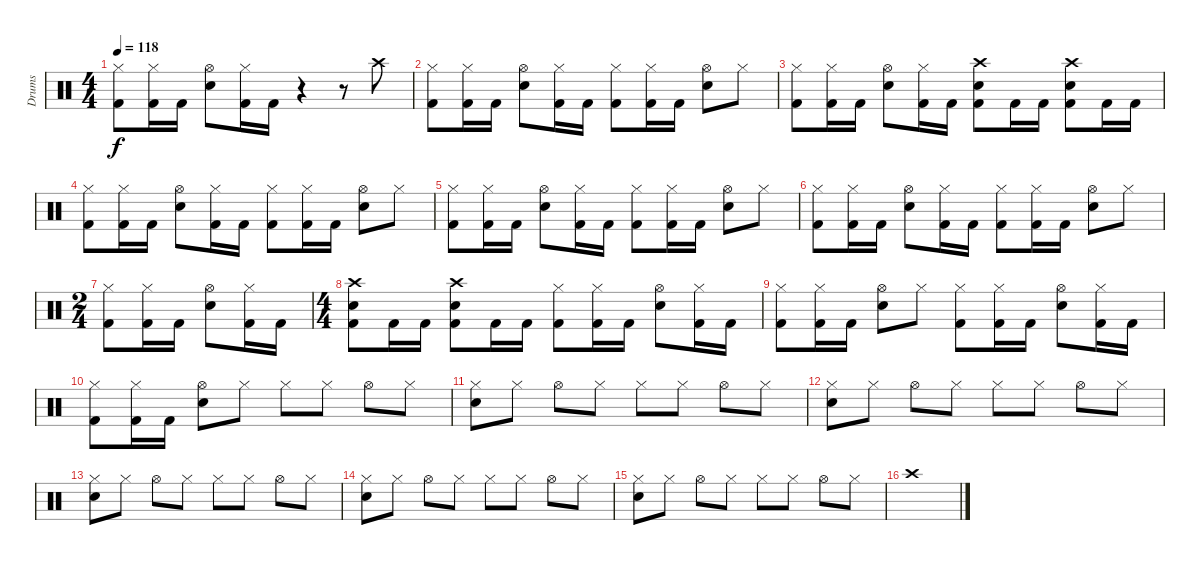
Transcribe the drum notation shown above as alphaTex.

\track ("Drums" "Drums") {solo instrument percussion}
\staff {score}
\articulation defaults
\ts (4 4)
\tempo 118
\clef neutral
\ks c
("Hi-Hat (closed)" "Kick (hit) 2").8{dy f} ("Hi-Hat (closed)" "Kick (hit) 2").16 "Kick (hit) 2".16 ("Hi-Hat (open)" "Snare (hit) 2").8 ("Hi-Hat (closed)" "Kick (hit) 2").16 "Kick (hit) 2".16 r.4 r.8 "Crash high (hit)".8 |
("Hi-Hat (closed)" "Kick (hit) 2").8 ("Hi-Hat (closed)" "Kick (hit) 2").16 "Kick (hit) 2".16 ("Hi-Hat (open)" "Snare (hit) 2").8 ("Hi-Hat (closed)" "Kick (hit) 2").16 "Kick (hit) 2".16 ("Hi-Hat (closed)" "Kick (hit) 2").8 ("Hi-Hat (closed)" "Kick (hit) 2").16 "Kick (hit) 2".16 ("Hi-Hat (open)" "Snare (hit) 2").8 "Hi-Hat (closed)".8 |
("Hi-Hat (closed)" "Kick (hit) 2").8 ("Hi-Hat (closed)" "Kick (hit) 2").16 "Kick (hit) 2".16 ("Hi-Hat (open)" "Snare (hit) 2").8 ("Hi-Hat (closed)" "Kick (hit) 2").16 "Kick (hit) 2".16 ("Crash high (hit)" "Kick (hit) 2" "Snare (hit) 2").8 "Kick (hit) 2".16 "Kick (hit) 2".16 ("Crash high (hit)" "Kick (hit) 2" "Snare (hit) 2").8 "Kick (hit) 2".16 "Kick (hit) 2".16 |
("Hi-Hat (closed)" "Kick (hit) 2").8 ("Hi-Hat (closed)" "Kick (hit) 2").16 "Kick (hit) 2".16 ("Hi-Hat (open)" "Snare (hit) 2").8 ("Hi-Hat (closed)" "Kick (hit) 2").16 "Kick (hit) 2".16 ("Hi-Hat (closed)" "Kick (hit) 2").8 ("Hi-Hat (closed)" "Kick (hit) 2").16 "Kick (hit) 2".16 ("Hi-Hat (open)" "Snare (hit) 2").8 "Hi-Hat (closed)".8 |
("Hi-Hat (closed)" "Kick (hit) 2").8 ("Hi-Hat (closed)" "Kick (hit) 2").16 "Kick (hit) 2".16 ("Hi-Hat (open)" "Snare (hit) 2").8 ("Hi-Hat (closed)" "Kick (hit) 2").16 "Kick (hit) 2".16 ("Hi-Hat (closed)" "Kick (hit) 2").8 ("Hi-Hat (closed)" "Kick (hit) 2").16 "Kick (hit) 2".16 ("Hi-Hat (open)" "Snare (hit) 2").8 "Hi-Hat (closed)".8 |
("Hi-Hat (closed)" "Kick (hit) 2").8 ("Hi-Hat (closed)" "Kick (hit) 2").16 "Kick (hit) 2".16 ("Hi-Hat (open)" "Snare (hit) 2").8 ("Hi-Hat (closed)" "Kick (hit) 2").16 "Kick (hit) 2".16 ("Hi-Hat (closed)" "Kick (hit) 2").8 ("Hi-Hat (closed)" "Kick (hit) 2").16 "Kick (hit) 2".16 ("Hi-Hat (open)" "Snare (hit) 2").8 "Hi-Hat (closed)".8 |
\ts (2 4)
("Hi-Hat (closed)" "Kick (hit) 2").8 ("Hi-Hat (closed)" "Kick (hit) 2").16 "Kick (hit) 2".16 ("Hi-Hat (open)" "Snare (hit) 2").8 ("Hi-Hat (closed)" "Kick (hit) 2").16 "Kick (hit) 2".16 |
\ts (4 4)
("Crash high (hit)" "Kick (hit) 2" "Snare (hit) 2").8 "Kick (hit) 2".16 "Kick (hit) 2".16 ("Crash high (hit)" "Kick (hit) 2" "Snare (hit) 2").8 "Kick (hit) 2".16 "Kick (hit) 2".16 ("Hi-Hat (closed)" "Kick (hit) 2").8 ("Hi-Hat (closed)" "Kick (hit) 2").16 "Kick (hit) 2".16 ("Hi-Hat (open)" "Snare (hit) 2").8 ("Hi-Hat (closed)" "Kick (hit) 2").16 "Kick (hit) 2".16 |
("Hi-Hat (closed)" "Kick (hit) 2").8 ("Hi-Hat (closed)" "Kick (hit) 2").16 "Kick (hit) 2".16 ("Hi-Hat (open)" "Snare (hit) 2").8 "Hi-Hat (closed)".8 ("Hi-Hat (closed)" "Kick (hit) 2").8 ("Hi-Hat (closed)" "Kick (hit) 2").16 "Kick (hit) 2".16 ("Hi-Hat (open)" "Snare (hit) 2").8 ("Hi-Hat (closed)" "Kick (hit) 2").16 "Kick (hit) 2".16 |
("Hi-Hat (closed)" "Kick (hit) 2").8 ("Hi-Hat (closed)" "Kick (hit) 2").16 "Kick (hit) 2".16 ("Hi-Hat (open)" "Snare (hit) 2").8 "Hi-Hat (closed)".8 "Hi-Hat (closed)".8 "Hi-Hat (closed)".8 "Hi-Hat (open)".8 "Hi-Hat (closed)".8 |
("Hi-Hat (closed)" "Snare (hit) 2").8 "Hi-Hat (closed)".8 "Hi-Hat (open)".8 "Hi-Hat (closed)".8 "Hi-Hat (closed)".8 "Hi-Hat (closed)".8 "Hi-Hat (open)".8 "Hi-Hat (closed)".8 |
("Hi-Hat (closed)" "Snare (hit) 2").8 "Hi-Hat (closed)".8 "Hi-Hat (open)".8 "Hi-Hat (closed)".8 "Hi-Hat (closed)".8 "Hi-Hat (closed)".8 "Hi-Hat (open)".8 "Hi-Hat (closed)".8 |
("Hi-Hat (closed)" "Snare (hit) 2").8 "Hi-Hat (closed)".8 "Hi-Hat (open)".8 "Hi-Hat (closed)".8 "Hi-Hat (closed)".8 "Hi-Hat (closed)".8 "Hi-Hat (open)".8 "Hi-Hat (closed)".8 |
("Hi-Hat (closed)" "Snare (hit) 2").8 "Hi-Hat (closed)".8 "Hi-Hat (open)".8 "Hi-Hat (closed)".8 "Hi-Hat (closed)".8 "Hi-Hat (closed)".8 "Hi-Hat (open)".8 "Hi-Hat (closed)".8 |
("Hi-Hat (closed)" "Snare (hit) 2").8 "Hi-Hat (closed)".8 "Hi-Hat (open)".8 "Hi-Hat (closed)".8 "Hi-Hat (closed)".8 "Hi-Hat (closed)".8 "Hi-Hat (open)".8 "Hi-Hat (closed)".8 |
"Crash high (hit)".1
